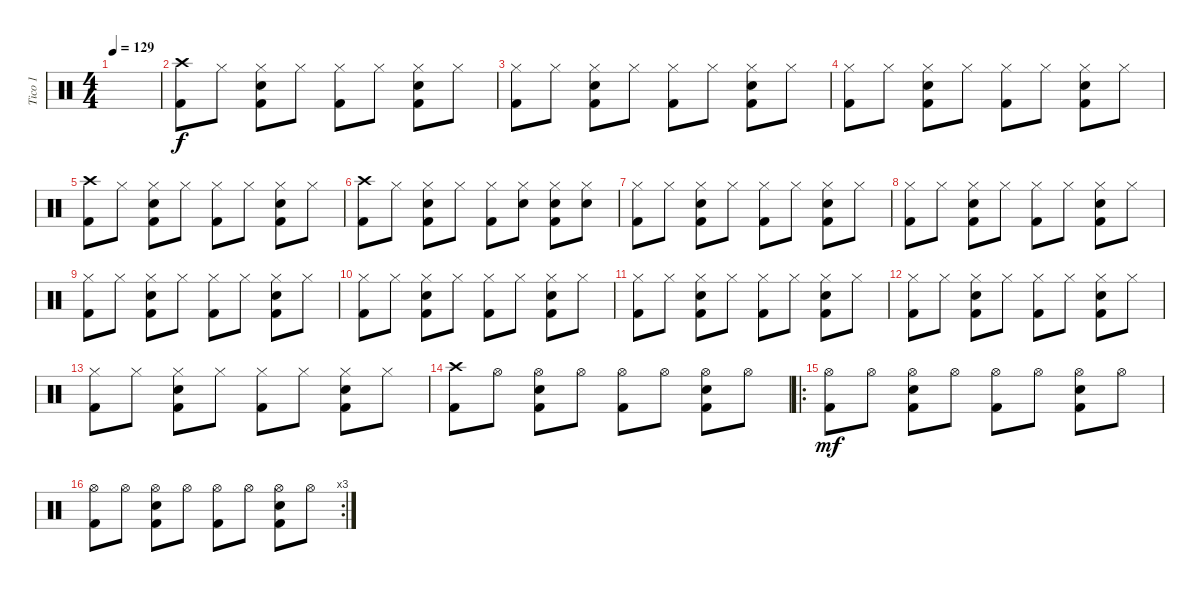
\track ("Tico 1" "Tico 1") {instrument percussion}
\staff {score}
\articulation defaults
\ts (4 4)
\tempo 129
\clef neutral
\ks c
|
("Crash high (hit)" "Kick (hit) 2").8 "Hi-Hat (closed)".8 ("Hi-Hat (closed)" "Snare (hit) 2" "Kick (hit) 2").8 "Hi-Hat (closed)".8 ("Hi-Hat (closed)" "Kick (hit) 2").8 "Hi-Hat (closed)".8 ("Hi-Hat (closed)" "Snare (hit) 2" "Kick (hit) 2").8 "Hi-Hat (closed)".8 |
("Hi-Hat (closed)" "Kick (hit) 2").8 "Hi-Hat (closed)".8 ("Hi-Hat (closed)" "Snare (hit) 2" "Kick (hit) 2").8 "Hi-Hat (closed)".8 ("Hi-Hat (closed)" "Kick (hit) 2").8 "Hi-Hat (closed)".8 ("Hi-Hat (closed)" "Snare (hit) 2" "Kick (hit) 2").8 "Hi-Hat (closed)".8 |
("Hi-Hat (closed)" "Kick (hit) 2").8 "Hi-Hat (closed)".8 ("Hi-Hat (closed)" "Snare (hit) 2" "Kick (hit) 2").8 "Hi-Hat (closed)".8 ("Hi-Hat (closed)" "Kick (hit) 2").8 "Hi-Hat (closed)".8 ("Hi-Hat (closed)" "Snare (hit) 2" "Kick (hit) 2").8 "Hi-Hat (closed)".8 |
("Crash high (hit)" "Kick (hit) 2").8 "Hi-Hat (closed)".8 ("Hi-Hat (closed)" "Snare (hit) 2" "Kick (hit) 2").8 "Hi-Hat (closed)".8 ("Hi-Hat (closed)" "Kick (hit) 2").8 "Hi-Hat (closed)".8 ("Hi-Hat (closed)" "Snare (hit) 2" "Kick (hit) 2").8 "Hi-Hat (closed)".8 |
("Crash high (hit)" "Kick (hit) 2").8 "Hi-Hat (closed)".8 ("Hi-Hat (closed)" "Snare (hit) 2" "Kick (hit) 2").8 "Hi-Hat (closed)".8 ("Hi-Hat (closed)" "Kick (hit) 2").8 ("Hi-Hat (closed)" "Snare (hit) 2").8 ("Hi-Hat (closed)" "Snare (hit) 2" "Kick (hit) 2").8 ("Hi-Hat (closed)" "Snare (hit) 2").8 |
("Hi-Hat (closed)" "Kick (hit) 2").8 "Hi-Hat (closed)".8 ("Hi-Hat (closed)" "Snare (hit) 2" "Kick (hit) 2").8 "Hi-Hat (closed)".8 ("Hi-Hat (closed)" "Kick (hit) 2").8 "Hi-Hat (closed)".8 ("Hi-Hat (closed)" "Snare (hit) 2" "Kick (hit) 2").8 "Hi-Hat (closed)".8 |
("Hi-Hat (closed)" "Kick (hit) 2").8 "Hi-Hat (closed)".8 ("Hi-Hat (closed)" "Snare (hit) 2" "Kick (hit) 2").8 "Hi-Hat (closed)".8 ("Hi-Hat (closed)" "Kick (hit) 2").8 "Hi-Hat (closed)".8 ("Hi-Hat (closed)" "Snare (hit) 2" "Kick (hit) 2").8 "Hi-Hat (closed)".8 |
("Hi-Hat (closed)" "Kick (hit) 2").8 "Hi-Hat (closed)".8 ("Hi-Hat (closed)" "Snare (hit) 2" "Kick (hit) 2").8 "Hi-Hat (closed)".8 ("Hi-Hat (closed)" "Kick (hit) 2").8 "Hi-Hat (closed)".8 ("Hi-Hat (closed)" "Snare (hit) 2" "Kick (hit) 2").8 "Hi-Hat (closed)".8 |
("Hi-Hat (closed)" "Kick (hit) 2").8 "Hi-Hat (closed)".8 ("Hi-Hat (closed)" "Snare (hit) 2" "Kick (hit) 2").8 "Hi-Hat (closed)".8 ("Hi-Hat (closed)" "Kick (hit) 2").8 "Hi-Hat (closed)".8 ("Hi-Hat (closed)" "Snare (hit) 2" "Kick (hit) 2").8 "Hi-Hat (closed)".8 |
("Hi-Hat (closed)" "Kick (hit) 2").8 "Hi-Hat (closed)".8 ("Hi-Hat (closed)" "Snare (hit) 2" "Kick (hit) 2").8 "Hi-Hat (closed)".8 ("Hi-Hat (closed)" "Kick (hit) 2").8 "Hi-Hat (closed)".8 ("Hi-Hat (closed)" "Snare (hit) 2" "Kick (hit) 2").8 "Hi-Hat (closed)".8 |
("Hi-Hat (closed)" "Kick (hit) 2").8 "Hi-Hat (closed)".8 ("Hi-Hat (closed)" "Snare (hit) 2" "Kick (hit) 2").8 "Hi-Hat (closed)".8 ("Hi-Hat (closed)" "Kick (hit) 2").8 "Hi-Hat (closed)".8 ("Hi-Hat (closed)" "Snare (hit) 2" "Kick (hit) 2").8 "Hi-Hat (closed)".8 |
("Hi-Hat (closed)" "Kick (hit) 2").8 "Hi-Hat (closed)".8 ("Hi-Hat (closed)" "Snare (hit) 2" "Kick (hit) 2").8 "Hi-Hat (closed)".8 ("Hi-Hat (closed)" "Kick (hit) 2").8 "Hi-Hat (closed)".8 ("Hi-Hat (closed)" "Snare (hit) 2" "Kick (hit) 2").8 "Hi-Hat (closed)".8 |
("Crash high (hit)" "Kick (hit) 2").8 "Hi-Hat (open)".8 ("Hi-Hat (open)" "Snare (hit) 2" "Kick (hit) 2").8 "Hi-Hat (open)".8 ("Hi-Hat (open)" "Kick (hit) 2").8 "Hi-Hat (open)".8 ("Hi-Hat (open)" "Snare (hit) 2" "Kick (hit) 2").8 "Hi-Hat (open)".8 |
\ro
("Hi-Hat (open)" "Kick (hit) 2").8{dy mf} "Hi-Hat (open)".8 ("Hi-Hat (open)" "Snare (hit) 2" "Kick (hit) 2").8 "Hi-Hat (open)".8 ("Hi-Hat (open)" "Kick (hit) 2").8 "Hi-Hat (open)".8 ("Hi-Hat (open)" "Snare (hit) 2" "Kick (hit) 2").8 "Hi-Hat (open)".8 |
\rc 3
("Hi-Hat (open)" "Kick (hit) 2").8 "Hi-Hat (open)".8 ("Hi-Hat (open)" "Snare (hit) 2" "Kick (hit) 2").8 "Hi-Hat (open)".8 ("Hi-Hat (open)" "Kick (hit) 2").8 "Hi-Hat (open)".8 ("Hi-Hat (open)" "Snare (hit) 2" "Kick (hit) 2").8 "Hi-Hat (open)".8
